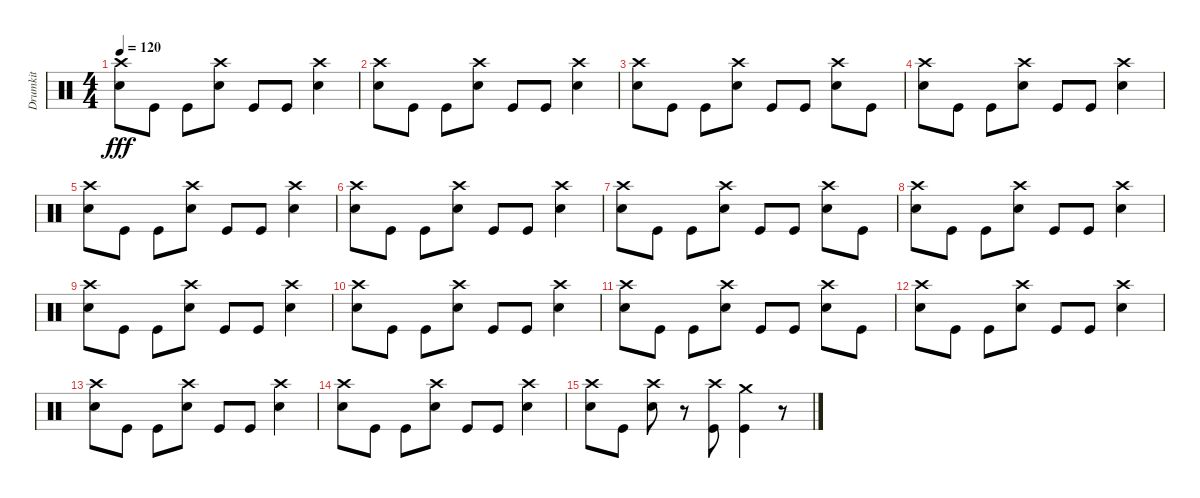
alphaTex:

\track ("Drumkit" "Drumkit") {instrument percussion}
\staff {score}
\articulation defaults
\ts (4 4)
\tempo 120
\clef neutral
\ks c
("Snare (hit) 2" "Crash high (hit)").8{dy fff} "Kick (hit)".8 "Kick (hit)".8 ("Snare (hit) 2" "Crash high (hit)").8 "Kick (hit)".8 "Kick (hit)".8 ("Snare (hit) 2" "Crash high (hit)").4 |
("Snare (hit) 2" "Crash high (hit)").8 "Kick (hit)".8 "Kick (hit)".8 ("Snare (hit) 2" "Crash high (hit)").8 "Kick (hit)".8 "Kick (hit)".8 ("Snare (hit) 2" "Crash high (hit)").4 |
("Snare (hit) 2" "Crash high (hit)").8 "Kick (hit)".8 "Kick (hit)".8 ("Snare (hit) 2" "Crash high (hit)").8 "Kick (hit)".8 "Kick (hit)".8 ("Snare (hit) 2" "Crash high (hit)").8 "Kick (hit)".8 |
("Snare (hit) 2" "Crash high (hit)").8 "Kick (hit)".8 "Kick (hit)".8 ("Snare (hit) 2" "Crash high (hit)").8 "Kick (hit)".8 "Kick (hit)".8 ("Snare (hit) 2" "Crash high (hit)").4 |
("Snare (hit) 2" "Crash high (hit)").8 "Kick (hit)".8 "Kick (hit)".8 ("Snare (hit) 2" "Crash high (hit)").8 "Kick (hit)".8 "Kick (hit)".8 ("Snare (hit) 2" "Crash high (hit)").4 |
("Snare (hit) 2" "Crash high (hit)").8 "Kick (hit)".8 "Kick (hit)".8 ("Snare (hit) 2" "Crash high (hit)").8 "Kick (hit)".8 "Kick (hit)".8 ("Snare (hit) 2" "Crash high (hit)").4 |
("Snare (hit) 2" "Crash high (hit)").8 "Kick (hit)".8 "Kick (hit)".8 ("Snare (hit) 2" "Crash high (hit)").8 "Kick (hit)".8 "Kick (hit)".8 ("Snare (hit) 2" "Crash high (hit)").8 "Kick (hit)".8 |
("Snare (hit) 2" "Crash high (hit)").8 "Kick (hit)".8 "Kick (hit)".8 ("Snare (hit) 2" "Crash high (hit)").8 "Kick (hit)".8 "Kick (hit)".8 ("Snare (hit) 2" "Crash high (hit)").4 |
("Snare (hit) 2" "Crash high (hit)").8 "Kick (hit)".8 "Kick (hit)".8 ("Snare (hit) 2" "Crash high (hit)").8 "Kick (hit)".8 "Kick (hit)".8 ("Snare (hit) 2" "Crash high (hit)").4 |
("Snare (hit) 2" "Crash high (hit)").8 "Kick (hit)".8 "Kick (hit)".8 ("Snare (hit) 2" "Crash high (hit)").8 "Kick (hit)".8 "Kick (hit)".8 ("Snare (hit) 2" "Crash high (hit)").4 |
("Snare (hit) 2" "Crash high (hit)").8 "Kick (hit)".8 "Kick (hit)".8 ("Snare (hit) 2" "Crash high (hit)").8 "Kick (hit)".8 "Kick (hit)".8 ("Snare (hit) 2" "Crash high (hit)").8 "Kick (hit)".8 |
("Snare (hit) 2" "Crash high (hit)").8 "Kick (hit)".8 "Kick (hit)".8 ("Snare (hit) 2" "Crash high (hit)").8 "Kick (hit)".8 "Kick (hit)".8 ("Snare (hit) 2" "Crash high (hit)").4 |
("Snare (hit) 2" "Crash high (hit)").8 "Kick (hit)".8 "Kick (hit)".8 ("Snare (hit) 2" "Crash high (hit)").8 "Kick (hit)".8 "Kick (hit)".8 ("Snare (hit) 2" "Crash high (hit)").4 |
("Snare (hit) 2" "Crash high (hit)").8 "Kick (hit)".8 "Kick (hit)".8 ("Snare (hit) 2" "Crash high (hit)").8 "Kick (hit)".8 "Kick (hit)".8 ("Snare (hit) 2" "Crash high (hit)").4 |
("Snare (hit) 2" "Crash high (hit)").8 "Kick (hit)".8 ("Crash high (hit)" "Snare (hit) 2").8 r.8 ("Kick (hit)" "Crash high (hit)").8 ("Kick (hit)" "Crash medium (hit)").4 r.8
